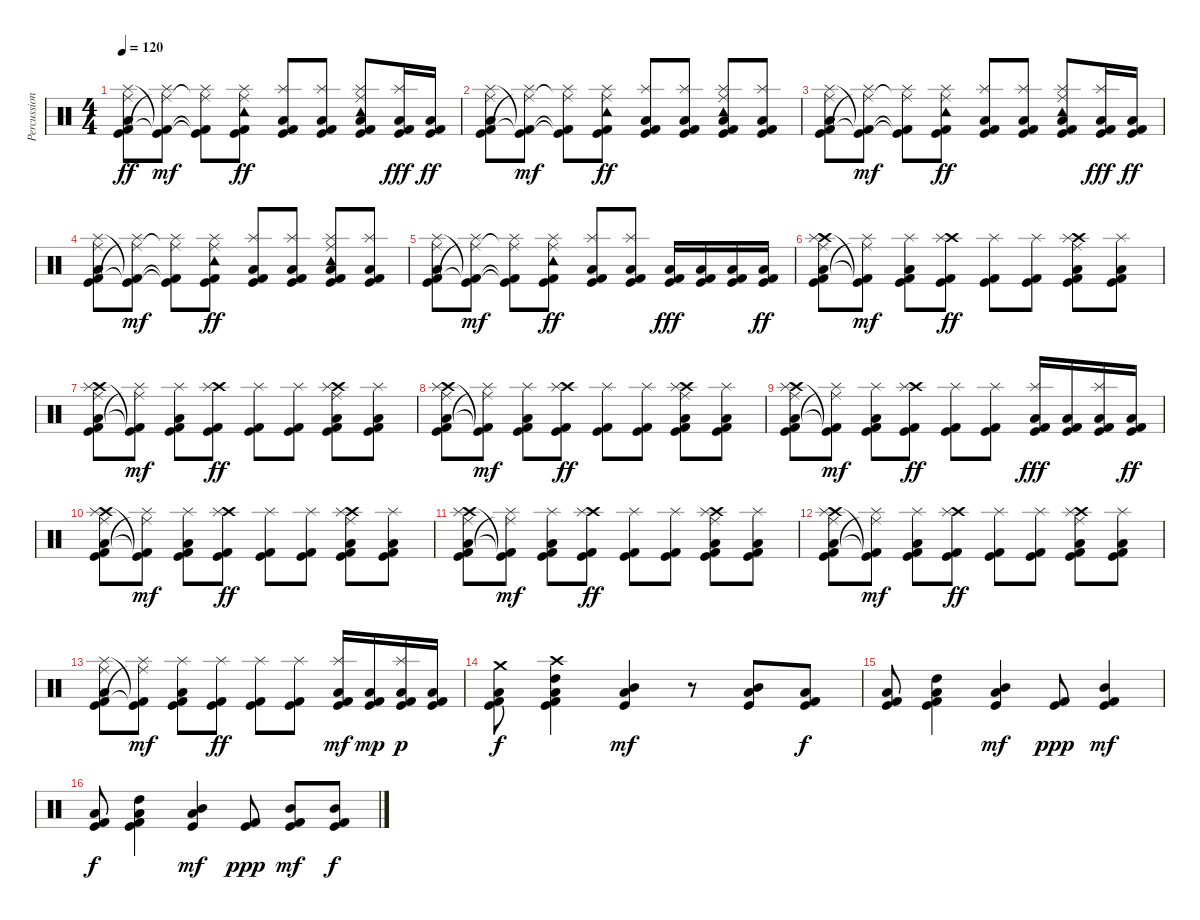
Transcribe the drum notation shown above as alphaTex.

\track ("Percussion" "Percussion") {instrument percussion}
\staff {score}
\articulation defaults
\ts (4 4)
\tempo 120
\clef neutral
\ks c
("Low Tom (hit)" "Splash (hit)" "Kick (hit) 2" "Kick (hit)" "Ride (middle)").8{dy ff} ("Splash (hit)" "Kick (hit) 2"{t} "Kick (hit)"{t} "Ride (middle)"{t}).8{dy mf} ("Splash (hit)" "Kick (hit) 2"{t} "Kick (hit)"{t} "Ride (middle)"{t}).8 ("Tambourine (hit)" "Splash (hit)" "Kick (hit) 2" "Kick (hit)" "Ride (middle)").8{dy ff} ("Splash (hit)" "Low Tom (hit)" "Kick (hit)" "Kick (hit) 2").8 ("Splash (hit)" "Low Tom (hit)" "Kick (hit)" "Kick (hit) 2").8 ("Tambourine (hit)" "Kick (hit) 2" "Splash (hit)" "Low Tom (hit)" "Kick (hit)" "Ride (middle)").8 ("Splash (hit)" "Low Tom (hit)" "Kick (hit)" "Kick (hit) 2").16{dy fff} ("Low Tom (hit)" "Kick (hit)" "Kick (hit) 2").16{dy ff} |
("Low Tom (hit)" "Splash (hit)" "Kick (hit) 2" "Kick (hit)" "Ride (middle)").8 ("Splash (hit)" "Kick (hit) 2"{t} "Kick (hit)"{t} "Ride (middle)"{t}).8{dy mf} ("Splash (hit)" "Kick (hit) 2"{t} "Kick (hit)"{t} "Ride (middle)"{t}).8 ("Tambourine (hit)" "Splash (hit)" "Kick (hit) 2" "Kick (hit)" "Ride (middle)").8{dy ff} ("Splash (hit)" "Low Tom (hit)" "Kick (hit)" "Kick (hit) 2").8 ("Splash (hit)" "Low Tom (hit)" "Kick (hit)" "Kick (hit) 2").8 ("Tambourine (hit)" "Kick (hit) 2" "Splash (hit)" "Low Tom (hit)" "Kick (hit)" "Ride (middle)").8 ("Splash (hit)" "Low Tom (hit)" "Kick (hit)" "Kick (hit) 2").8 |
("Low Tom (hit)" "Splash (hit)" "Kick (hit) 2" "Kick (hit)" "Ride (middle)").8 ("Splash (hit)" "Kick (hit) 2"{t} "Kick (hit)"{t} "Ride (middle)"{t}).8{dy mf} ("Splash (hit)" "Kick (hit) 2"{t} "Kick (hit)"{t} "Ride (middle)"{t}).8 ("Tambourine (hit)" "Splash (hit)" "Kick (hit) 2" "Kick (hit)" "Ride (middle)").8{dy ff} ("Splash (hit)" "Low Tom (hit)" "Kick (hit)" "Kick (hit) 2").8 ("Splash (hit)" "Low Tom (hit)" "Kick (hit)" "Kick (hit) 2").8 ("Tambourine (hit)" "Kick (hit) 2" "Splash (hit)" "Low Tom (hit)" "Kick (hit)" "Ride (middle)").8 ("Splash (hit)" "Low Tom (hit)" "Kick (hit)" "Kick (hit) 2").16{dy fff} ("Low Tom (hit)" "Kick (hit)" "Kick (hit) 2").16{dy ff} |
("Low Tom (hit)" "Splash (hit)" "Kick (hit) 2" "Kick (hit)" "Ride (middle)").8 ("Splash (hit)" "Kick (hit) 2"{t} "Kick (hit)"{t} "Ride (middle)"{t}).8{dy mf} ("Splash (hit)" "Kick (hit) 2"{t} "Kick (hit)"{t} "Ride (middle)"{t}).8 ("Tambourine (hit)" "Splash (hit)" "Kick (hit) 2" "Kick (hit)" "Ride (middle)").8{dy ff} ("Splash (hit)" "Low Tom (hit)" "Kick (hit)" "Kick (hit) 2").8 ("Splash (hit)" "Low Tom (hit)" "Kick (hit)" "Kick (hit) 2").8 ("Tambourine (hit)" "Kick (hit) 2" "Splash (hit)" "Low Tom (hit)" "Kick (hit)" "Ride (middle)").8 ("Splash (hit)" "Low Tom (hit)" "Kick (hit)" "Kick (hit) 2").8 |
("Low Tom (hit)" "Splash (hit)" "Kick (hit) 2" "Kick (hit)" "Ride (middle)").8 ("Splash (hit)" "Kick (hit) 2"{t} "Kick (hit)"{t} "Ride (middle)"{t}).8{dy mf} ("Splash (hit)" "Kick (hit) 2"{t} "Kick (hit)"{t} "Ride (middle)"{t}).8 ("Tambourine (hit)" "Splash (hit)" "Kick (hit) 2" "Kick (hit)" "Ride (middle)").8{dy ff} ("Splash (hit)" "Low Tom (hit)" "Kick (hit)" "Kick (hit) 2").8 ("Splash (hit)" "Low Tom (hit)" "Kick (hit)" "Kick (hit) 2").8 ("Low Tom (hit)" "Kick (hit)" "Kick (hit) 2").16{dy fff} ("Low Tom (hit)" "Kick (hit)" "Kick (hit) 2").16 ("Low Tom (hit)" "Kick (hit)" "Kick (hit) 2").16 ("Low Tom (hit)" "Kick (hit)" "Kick (hit) 2").16{dy ff} |
("Crash high (hit)" "Low Tom (hit)" "Splash (hit)" "Kick (hit) 2" "Kick (hit)" "Ride (middle)").8 ("Splash (hit)" "Kick (hit) 2"{t} "Kick (hit)"{t} "Ride (middle)"{t}).8{dy mf} ("Splash (hit)" "Low Tom (hit)" "Kick (hit) 2" "Kick (hit)").8 ("Crash high (hit)" "Splash (hit)" "Kick (hit) 2" "Kick (hit)").8{dy ff} ("Splash (hit)" "Kick (hit)" "Kick (hit) 2").8 ("Splash (hit)" "Kick (hit)" "Kick (hit) 2").8 ("Crash high (hit)" "Kick (hit) 2" "Splash (hit)" "Low Tom (hit)" "Kick (hit)" "Ride (middle)").8 ("Splash (hit)" "Low Tom (hit)" "Kick (hit)" "Kick (hit) 2").8 |
("Crash high (hit)" "Low Tom (hit)" "Splash (hit)" "Kick (hit) 2" "Kick (hit)" "Ride (middle)").8 ("Splash (hit)" "Kick (hit) 2"{t} "Kick (hit)"{t} "Ride (middle)"{t}).8{dy mf} ("Splash (hit)" "Low Tom (hit)" "Kick (hit) 2" "Kick (hit)").8 ("Crash high (hit)" "Splash (hit)" "Kick (hit) 2" "Kick (hit)").8{dy ff} ("Splash (hit)" "Kick (hit)" "Kick (hit) 2").8 ("Splash (hit)" "Kick (hit)" "Kick (hit) 2").8 ("Crash high (hit)" "Kick (hit) 2" "Splash (hit)" "Low Tom (hit)" "Kick (hit)" "Ride (middle)").8 ("Splash (hit)" "Low Tom (hit)" "Kick (hit)" "Kick (hit) 2").8 |
("Crash high (hit)" "Low Tom (hit)" "Splash (hit)" "Kick (hit) 2" "Kick (hit)" "Ride (middle)").8 ("Splash (hit)" "Kick (hit) 2"{t} "Kick (hit)"{t} "Ride (middle)"{t}).8{dy mf} ("Splash (hit)" "Kick (hit)" "Kick (hit) 2" "Low Tom (hit)").8 ("Crash high (hit)" "Splash (hit)" "Kick (hit) 2" "Kick (hit)").8{dy ff} ("Splash (hit)" "Kick (hit)" "Kick (hit) 2").8 ("Splash (hit)" "Kick (hit)" "Kick (hit) 2").8 ("Crash high (hit)" "Kick (hit) 2" "Splash (hit)" "Low Tom (hit)" "Kick (hit)" "Ride (middle)").8 ("Splash (hit)" "Low Tom (hit)" "Kick (hit)" "Kick (hit) 2").8 |
("Crash high (hit)" "Low Tom (hit)" "Splash (hit)" "Kick (hit) 2" "Kick (hit)" "Ride (middle)").8 ("Splash (hit)" "Kick (hit) 2"{t} "Kick (hit)"{t} "Ride (middle)"{t}).8{dy mf} ("Splash (hit)" "Low Tom (hit)" "Kick (hit) 2" "Kick (hit)").8 ("Crash high (hit)" "Splash (hit)" "Kick (hit) 2" "Kick (hit)").8{dy ff} ("Splash (hit)" "Kick (hit)" "Kick (hit) 2").8 ("Splash (hit)" "Kick (hit)" "Kick (hit) 2").8 ("Splash (hit)" "Kick (hit)" "Low Tom (hit)" "Kick (hit) 2").16{dy fff} ("Kick (hit)" "Low Tom (hit)" "Kick (hit) 2").16 ("Splash (hit)" "Kick (hit)" "Kick (hit) 2" "Low Tom (hit)").16 ("Low Tom (hit)" "Kick (hit)" "Kick (hit) 2").16{dy ff} |
("Crash high (hit)" "Low Tom (hit)" "Splash (hit)" "Kick (hit) 2" "Kick (hit)" "Ride (middle)").8 ("Splash (hit)" "Kick (hit) 2"{t} "Kick (hit)"{t} "Ride (middle)"{t}).8{dy mf} ("Splash (hit)" "Low Tom (hit)" "Kick (hit) 2" "Kick (hit)").8 ("Crash high (hit)" "Splash (hit)" "Kick (hit) 2" "Kick (hit)").8{dy ff} ("Splash (hit)" "Kick (hit)" "Kick (hit) 2").8 ("Splash (hit)" "Kick (hit)" "Kick (hit) 2").8 ("Crash high (hit)" "Kick (hit) 2" "Splash (hit)" "Low Tom (hit)" "Kick (hit)" "Ride (middle)").8 ("Splash (hit)" "Low Tom (hit)" "Kick (hit)" "Kick (hit) 2").8 |
("Crash high (hit)" "Low Tom (hit)" "Splash (hit)" "Kick (hit) 2" "Kick (hit)" "Ride (middle)").8 ("Splash (hit)" "Kick (hit) 2"{t} "Kick (hit)"{t} "Ride (middle)"{t}).8{dy mf} ("Splash (hit)" "Low Tom (hit)" "Kick (hit) 2" "Kick (hit)").8 ("Crash high (hit)" "Splash (hit)" "Kick (hit) 2" "Kick (hit)").8{dy ff} ("Splash (hit)" "Kick (hit)" "Kick (hit) 2").8 ("Splash (hit)" "Kick (hit)" "Kick (hit) 2").8 ("Crash high (hit)" "Kick (hit) 2" "Splash (hit)" "Low Tom (hit)" "Kick (hit)" "Ride (middle)").8 ("Splash (hit)" "Low Tom (hit)" "Kick (hit)" "Kick (hit) 2").8 |
("Crash high (hit)" "Low Tom (hit)" "Splash (hit)" "Kick (hit) 2" "Kick (hit)" "Ride (middle)").8 ("Splash (hit)" "Kick (hit) 2"{t} "Kick (hit)"{t} "Ride (middle)"{t}).8{dy mf} ("Splash (hit)" "Kick (hit)" "Kick (hit) 2" "Low Tom (hit)").8 ("Crash high (hit)" "Splash (hit)" "Kick (hit) 2" "Kick (hit)").8{dy ff} ("Splash (hit)" "Kick (hit)" "Kick (hit) 2").8 ("Splash (hit)" "Kick (hit)" "Kick (hit) 2").8 ("Crash high (hit)" "Kick (hit) 2" "Splash (hit)" "Low Tom (hit)" "Kick (hit)" "Ride (middle)").8 ("Splash (hit)" "Low Tom (hit)" "Kick (hit)" "Kick (hit) 2").8 |
("Low Tom (hit)" "Splash (hit)" "Kick (hit) 2" "Kick (hit)" "Ride (middle)").8 ("Splash (hit)" "Kick (hit) 2"{t} "Kick (hit)"{t} "Ride (middle)"{t}).8{dy mf} ("Splash (hit)" "Low Tom (hit)" "Kick (hit) 2" "Kick (hit)").8 ("Splash (hit)" "Kick (hit) 2" "Kick (hit)").8{dy ff} ("Splash (hit)" "Kick (hit)" "Kick (hit) 2").8 ("Splash (hit)" "Kick (hit)" "Kick (hit) 2").8 ("Splash (hit)" "Kick (hit)" "Low Tom (hit)" "Kick (hit) 2").16{dy mf} ("Kick (hit)" "Low Tom (hit)" "Kick (hit) 2").16{dy mp} ("Splash (hit)" "Kick (hit)" "Kick (hit) 2" "Low Tom (hit)").16{dy p} ("Low Tom (hit)" "Kick (hit)" "Kick (hit) 2").16 |
("Crash medium (hit)" "Kick (hit)" "Kick (hit) 2" "Low Tom (hit)").8{dy f} ("High Tom (hit)" "Crash high (hit)" "Kick (hit)" "Kick (hit) 2" "Low Tom (hit)").4 ("Mid Tom (hit)" "Low Floor Tom (hit)" "Kick (hit)").4{dy mf} r.8 ("Mid Tom (hit)" "Low Floor Tom (hit)" "Kick (hit)").8 ("Low Tom (hit)" "Kick (hit)" "Kick (hit) 2").8{dy f} |
("Kick (hit)" "Kick (hit) 2" "Low Tom (hit)").8 ("High Tom (hit)" "Kick (hit)" "Kick (hit) 2" "Low Tom (hit)").4 ("Mid Tom (hit)" "Low Floor Tom (hit)" "Kick (hit)").4{dy mf} ("Kick (hit) 2" "Kick (hit)").8{dy ppp} ("Mid Tom (hit)" "Kick (hit) 2" "Kick (hit)").4{dy mf} |
("Kick (hit)" "Kick (hit) 2" "Low Tom (hit)").8{dy f} ("High Tom (hit)" "Kick (hit)" "Kick (hit) 2" "Low Tom (hit)").4 ("Mid Tom (hit)" "Low Floor Tom (hit)" "Kick (hit)").4{dy mf} ("Kick (hit) 2" "Kick (hit)").8{dy ppp} ("Mid Tom (hit)" "Kick (hit) 2" "Kick (hit)").8{dy mf} ("Mid Tom (hit)" "Kick (hit) 2" "Kick (hit)").8{dy f}
